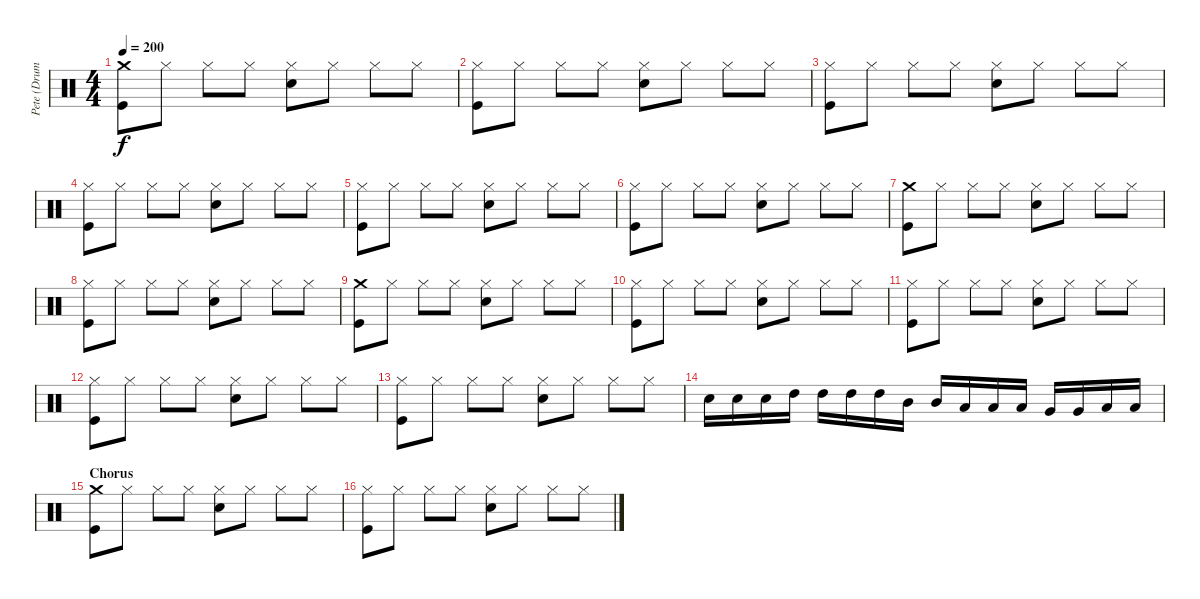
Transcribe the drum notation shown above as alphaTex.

\track ("Pete (Drums)" "Pete (Drum") {instrument percussion}
\staff {score}
\articulation defaults
\ts (4 4)
\tempo 200
\clef neutral
\ks c
("Crash medium (hit)" "Kick (hit)").8{dy f} "Hi-Hat (closed)".8 "Hi-Hat (closed)".8 "Hi-Hat (closed)".8 ("Hi-Hat (closed)" "Snare (hit) 2").8 "Hi-Hat (closed)".8 "Hi-Hat (closed)".8 "Hi-Hat (closed)".8 |
("Hi-Hat (closed)" "Kick (hit)").8 "Hi-Hat (closed)".8 "Hi-Hat (closed)".8 "Hi-Hat (closed)".8 ("Hi-Hat (closed)" "Snare (hit) 2").8 "Hi-Hat (closed)".8 "Hi-Hat (closed)".8 "Hi-Hat (closed)".8 |
("Hi-Hat (closed)" "Kick (hit)").8 "Hi-Hat (closed)".8 "Hi-Hat (closed)".8 "Hi-Hat (closed)".8 ("Hi-Hat (closed)" "Snare (hit) 2").8 "Hi-Hat (closed)".8 "Hi-Hat (closed)".8 "Hi-Hat (closed)".8 |
("Hi-Hat (closed)" "Kick (hit)").8 "Hi-Hat (closed)".8 "Hi-Hat (closed)".8 "Hi-Hat (closed)".8 ("Hi-Hat (closed)" "Snare (hit) 2").8 "Hi-Hat (closed)".8 "Hi-Hat (closed)".8 "Hi-Hat (closed)".8 |
("Hi-Hat (closed)" "Kick (hit)").8 "Hi-Hat (closed)".8 "Hi-Hat (closed)".8 "Hi-Hat (closed)".8 ("Hi-Hat (closed)" "Snare (hit) 2").8 "Hi-Hat (closed)".8 "Hi-Hat (closed)".8 "Hi-Hat (closed)".8 |
("Hi-Hat (closed)" "Kick (hit)").8 "Hi-Hat (closed)".8 "Hi-Hat (closed)".8 "Hi-Hat (closed)".8 ("Hi-Hat (closed)" "Snare (hit) 2").8 "Hi-Hat (closed)".8 "Hi-Hat (closed)".8 "Hi-Hat (closed)".8 |
("Crash medium (hit)" "Kick (hit)").8 "Hi-Hat (closed)".8 "Hi-Hat (closed)".8 "Hi-Hat (closed)".8 ("Hi-Hat (closed)" "Snare (hit) 2").8 "Hi-Hat (closed)".8 "Hi-Hat (closed)".8 "Hi-Hat (closed)".8 |
("Hi-Hat (closed)" "Kick (hit)").8 "Hi-Hat (closed)".8 "Hi-Hat (closed)".8 "Hi-Hat (closed)".8 ("Hi-Hat (closed)" "Snare (hit) 2").8 "Hi-Hat (closed)".8 "Hi-Hat (closed)".8 "Hi-Hat (closed)".8 |
("Crash medium (hit)" "Kick (hit)").8 "Hi-Hat (closed)".8 "Hi-Hat (closed)".8 "Hi-Hat (closed)".8 ("Hi-Hat (closed)" "Snare (hit) 2").8 "Hi-Hat (closed)".8 "Hi-Hat (closed)".8 "Hi-Hat (closed)".8 |
("Hi-Hat (closed)" "Kick (hit)").8 "Hi-Hat (closed)".8 "Hi-Hat (closed)".8 "Hi-Hat (closed)".8 ("Hi-Hat (closed)" "Snare (hit) 2").8 "Hi-Hat (closed)".8 "Hi-Hat (closed)".8 "Hi-Hat (closed)".8 |
("Hi-Hat (closed)" "Kick (hit)").8 "Hi-Hat (closed)".8 "Hi-Hat (closed)".8 "Hi-Hat (closed)".8 ("Hi-Hat (closed)" "Snare (hit) 2").8 "Hi-Hat (closed)".8 "Hi-Hat (closed)".8 "Hi-Hat (closed)".8 |
("Hi-Hat (closed)" "Kick (hit)").8 "Hi-Hat (closed)".8 "Hi-Hat (closed)".8 "Hi-Hat (closed)".8 ("Hi-Hat (closed)" "Snare (hit) 2").8 "Hi-Hat (closed)".8 "Hi-Hat (closed)".8 "Hi-Hat (closed)".8 |
("Hi-Hat (closed)" "Kick (hit)").8 "Hi-Hat (closed)".8 "Hi-Hat (closed)".8 "Hi-Hat (closed)".8 ("Hi-Hat (closed)" "Snare (hit) 2").8 "Hi-Hat (closed)".8 "Hi-Hat (closed)".8 "Hi-Hat (closed)".8 |
"Snare (hit) 2".16 "Snare (hit) 2".16 "Snare (hit) 2".16 "High Tom (hit)".16 "High Tom (hit)".16 "High Tom (hit)".16 "High Tom (hit)".16 "Mid Tom (hit)".16 "Mid Tom (hit)".16 "Low Tom (hit)".16 "Low Tom (hit)".16 "Low Tom (hit)".16 "Very Low Tom (hit)".16 "Very Low Tom (hit)".16 "Low Floor Tom (hit)".16 "Low Floor Tom (hit)".16 |
\section ("" "Chorus")
("Crash medium (hit)" "Kick (hit)").8 "Hi-Hat (closed)".8 "Hi-Hat (closed)".8 "Hi-Hat (closed)".8 ("Hi-Hat (closed)" "Snare (hit) 2").8 "Hi-Hat (closed)".8 "Hi-Hat (closed)".8 "Hi-Hat (closed)".8 |
("Hi-Hat (closed)" "Kick (hit)").8 "Hi-Hat (closed)".8 "Hi-Hat (closed)".8 "Hi-Hat (closed)".8 ("Hi-Hat (closed)" "Snare (hit) 2").8 "Hi-Hat (closed)".8 "Hi-Hat (closed)".8 "Hi-Hat (closed)".8
